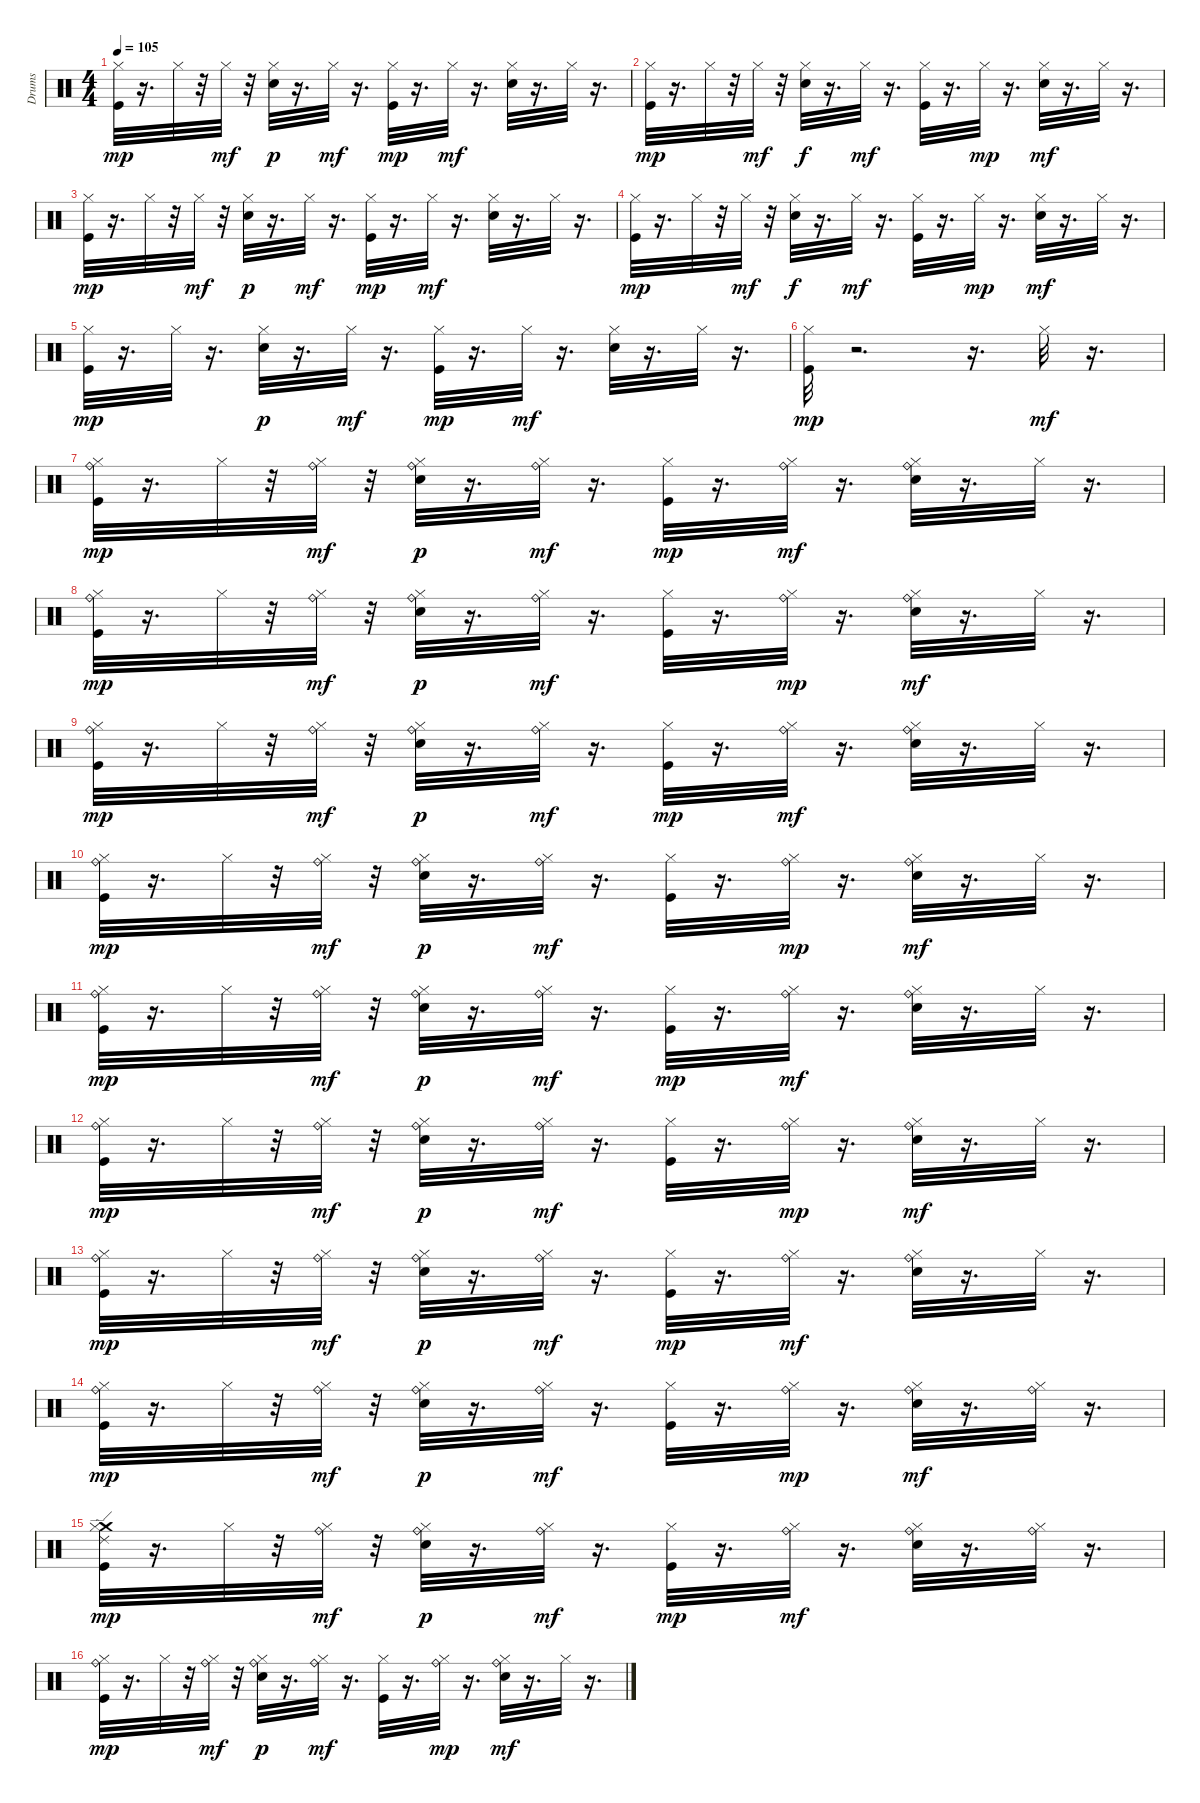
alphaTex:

\track ("Drums" "Drums") {instrument percussion}
\staff {score}
\articulation defaults
\ts (4 4)
\tempo 105
\clef neutral
\ks c
("Kick (hit)" "Hi-Hat (closed)").32{dy mp} r.16{d} "Hi-Hat (closed)".32 r.32 "Hi-Hat (closed)".32{dy mf} r.32 ("Snare (hit) 2" "Hi-Hat (closed)").32{dy p} r.16{d} "Hi-Hat (closed)".32{dy mf} r.16{d} ("Kick (hit)" "Hi-Hat (closed)").32{dy mp} r.16{d} "Hi-Hat (closed)".32{dy mf} r.16{d} ("Snare (hit) 2" "Hi-Hat (closed)").32 r.16{d} "Hi-Hat (closed)".32 r.16{d} |
("Kick (hit)" "Hi-Hat (closed)").32{dy mp} r.16{d} "Hi-Hat (closed)".32 r.32 "Hi-Hat (closed)".32{dy mf} r.32 ("Snare (hit) 2" "Hi-Hat (closed)").32{dy f} r.16{d} "Hi-Hat (closed)".32{dy mf} r.16{d} ("Kick (hit)" "Hi-Hat (closed)").32 r.16{d} "Hi-Hat (closed)".32{dy mp} r.16{d} ("Snare (hit) 2" "Hi-Hat (closed)").32{dy mf} r.16{d} "Hi-Hat (closed)".32 r.16{d} |
("Kick (hit)" "Hi-Hat (closed)").32{dy mp} r.16{d} "Hi-Hat (closed)".32 r.32 "Hi-Hat (closed)".32{dy mf} r.32 ("Snare (hit) 2" "Hi-Hat (closed)").32{dy p} r.16{d} "Hi-Hat (closed)".32{dy mf} r.16{d} ("Kick (hit)" "Hi-Hat (closed)").32{dy mp} r.16{d} "Hi-Hat (closed)".32{dy mf} r.16{d} ("Snare (hit) 2" "Hi-Hat (closed)").32 r.16{d} "Hi-Hat (closed)".32 r.16{d} |
("Kick (hit)" "Hi-Hat (closed)").32{dy mp} r.16{d} "Hi-Hat (closed)".32 r.32 "Hi-Hat (closed)".32{dy mf} r.32 ("Snare (hit) 2" "Hi-Hat (closed)").32{dy f} r.16{d} "Hi-Hat (closed)".32{dy mf} r.16{d} ("Kick (hit)" "Hi-Hat (closed)").32 r.16{d} "Hi-Hat (closed)".32{dy mp} r.16{d} ("Snare (hit) 2" "Hi-Hat (closed)").32{dy mf} r.16{d} "Hi-Hat (closed)".32 r.16{d} |
("Kick (hit)" "Hi-Hat (closed)").32{dy mp} r.16{d} "Hi-Hat (closed)".32 r.16{d} ("Snare (hit) 2" "Hi-Hat (closed)").32{dy p} r.16{d} "Hi-Hat (closed)".32{dy mf} r.16{d} ("Kick (hit)" "Hi-Hat (closed)").32{dy mp} r.16{d} "Hi-Hat (closed)".32{dy mf} r.16{d} ("Snare (hit) 2" "Hi-Hat (closed)").32 r.16{d} "Hi-Hat (closed)".32 r.16{d} |
("Kick (hit)" "Hi-Hat (closed)").32{dy mp} r.2{d} r.16{d} "Hi-Hat (closed)".32{dy mf} r.16{d} |
("Ride (bell)" "Kick (hit)" "Hi-Hat (closed)").32{dy mp} r.16{d} "Hi-Hat (closed)".32 r.32 ("Ride (bell)" "Hi-Hat (closed)").32{dy mf} r.32 ("Snare (hit) 2" "Ride (bell)" "Hi-Hat (closed)").32{dy p} r.16{d} ("Ride (bell)" "Hi-Hat (closed)").32{dy mf} r.16{d} ("Kick (hit)" "Hi-Hat (closed)").32{dy mp} r.16{d} ("Ride (bell)" "Hi-Hat (closed)").32{dy mf} r.16{d} ("Snare (hit) 2" "Ride (bell)" "Hi-Hat (closed)").32 r.16{d} "Hi-Hat (closed)".32 r.16{d} |
("Ride (bell)" "Kick (hit)" "Hi-Hat (closed)").32{dy mp} r.16{d} "Hi-Hat (closed)".32 r.32 ("Ride (bell)" "Hi-Hat (closed)").32{dy mf} r.32 ("Snare (hit) 2" "Ride (bell)" "Hi-Hat (closed)").32{dy p} r.16{d} ("Ride (bell)" "Hi-Hat (closed)").32{dy mf} r.16{d} ("Kick (hit)" "Hi-Hat (closed)").32 r.16{d} ("Ride (bell)" "Hi-Hat (closed)").32{dy mp} r.16{d} ("Snare (hit) 2" "Ride (bell)" "Hi-Hat (closed)").32{dy mf} r.16{d} "Hi-Hat (closed)".32 r.16{d} |
("Ride (bell)" "Kick (hit)" "Hi-Hat (closed)").32{dy mp} r.16{d} "Hi-Hat (closed)".32 r.32 ("Ride (bell)" "Hi-Hat (closed)").32{dy mf} r.32 ("Snare (hit) 2" "Ride (bell)" "Hi-Hat (closed)").32{dy p} r.16{d} ("Ride (bell)" "Hi-Hat (closed)").32{dy mf} r.16{d} ("Kick (hit)" "Hi-Hat (closed)").32{dy mp} r.16{d} ("Ride (bell)" "Hi-Hat (closed)").32{dy mf} r.16{d} ("Snare (hit) 2" "Ride (bell)" "Hi-Hat (closed)").32 r.16{d} "Hi-Hat (closed)".32 r.16{d} |
("Ride (bell)" "Kick (hit)" "Hi-Hat (closed)").32{dy mp} r.16{d} "Hi-Hat (closed)".32 r.32 ("Ride (bell)" "Hi-Hat (closed)").32{dy mf} r.32 ("Snare (hit) 2" "Ride (bell)" "Hi-Hat (closed)").32{dy p} r.16{d} ("Ride (bell)" "Hi-Hat (closed)").32{dy mf} r.16{d} ("Kick (hit)" "Hi-Hat (closed)").32 r.16{d} ("Ride (bell)" "Hi-Hat (closed)").32{dy mp} r.16{d} ("Snare (hit) 2" "Ride (bell)" "Hi-Hat (closed)").32{dy mf} r.16{d} "Hi-Hat (closed)".32 r.16{d} |
("Ride (bell)" "Kick (hit)" "Hi-Hat (closed)").32{dy mp} r.16{d} "Hi-Hat (closed)".32 r.32 ("Ride (bell)" "Hi-Hat (closed)").32{dy mf} r.32 ("Snare (hit) 2" "Ride (bell)" "Hi-Hat (closed)").32{dy p} r.16{d} ("Ride (bell)" "Hi-Hat (closed)").32{dy mf} r.16{d} ("Kick (hit)" "Hi-Hat (closed)").32{dy mp} r.16{d} ("Ride (bell)" "Hi-Hat (closed)").32{dy mf} r.16{d} ("Snare (hit) 2" "Ride (bell)" "Hi-Hat (closed)").32 r.16{d} "Hi-Hat (closed)".32 r.16{d} |
("Ride (bell)" "Kick (hit)" "Hi-Hat (closed)").32{dy mp} r.16{d} "Hi-Hat (closed)".32 r.32 ("Ride (bell)" "Hi-Hat (closed)").32{dy mf} r.32 ("Snare (hit) 2" "Ride (bell)" "Hi-Hat (closed)").32{dy p} r.16{d} ("Ride (bell)" "Hi-Hat (closed)").32{dy mf} r.16{d} ("Kick (hit)" "Hi-Hat (closed)").32 r.16{d} ("Ride (bell)" "Hi-Hat (closed)").32{dy mp} r.16{d} ("Snare (hit) 2" "Ride (bell)" "Hi-Hat (closed)").32{dy mf} r.16{d} "Hi-Hat (closed)".32 r.16{d} |
("Ride (bell)" "Kick (hit)" "Hi-Hat (closed)").32{dy mp} r.16{d} "Hi-Hat (closed)".32 r.32 ("Ride (bell)" "Hi-Hat (closed)").32{dy mf} r.32 ("Snare (hit) 2" "Ride (bell)" "Hi-Hat (closed)").32{dy p} r.16{d} ("Ride (bell)" "Hi-Hat (closed)").32{dy mf} r.16{d} ("Kick (hit)" "Hi-Hat (closed)").32{dy mp} r.16{d} ("Ride (bell)" "Hi-Hat (closed)").32{dy mf} r.16{d} ("Snare (hit) 2" "Ride (bell)" "Hi-Hat (closed)").32 r.16{d} "Hi-Hat (closed)".32 r.16{d} |
("Ride (bell)" "Kick (hit)" "Hi-Hat (closed)").32{dy mp} r.16{d} "Hi-Hat (closed)".32 r.32 ("Ride (bell)" "Hi-Hat (closed)").32{dy mf} r.32 ("Snare (hit) 2" "Ride (bell)" "Hi-Hat (closed)").32{dy p} r.16{d} ("Ride (bell)" "Hi-Hat (closed)").32{dy mf} r.16{d} ("Kick (hit)" "Hi-Hat (closed)").32 r.16{d} ("Ride (bell)" "Hi-Hat (closed)").32{dy mp} r.16{d} ("Snare (hit) 2" "Ride (bell)" "Hi-Hat (closed)").32{dy mf} r.16{d} ("Ride (bell)" "Hi-Hat (closed)").32 r.16{d} |
("Ride (edge) 2" "Crash medium (hit)" "Kick (hit)" "Hi-Hat (closed)").32{dy mp} r.16{d} "Hi-Hat (closed)".32 r.32 ("Ride (bell)" "Hi-Hat (closed)").32{dy mf} r.32 ("Snare (hit) 2" "Ride (bell)" "Hi-Hat (closed)").32{dy p} r.16{d} ("Ride (bell)" "Hi-Hat (closed)").32{dy mf} r.16{d} ("Kick (hit)" "Hi-Hat (closed)").32{dy mp} r.16{d} ("Ride (bell)" "Hi-Hat (closed)").32{dy mf} r.16{d} ("Snare (hit) 2" "Ride (bell)" "Hi-Hat (closed)").32 r.16{d} ("Ride (bell)" "Hi-Hat (closed)").32 r.16{d} |
("Ride (bell)" "Kick (hit)" "Hi-Hat (closed)").32{dy mp} r.16{d} "Hi-Hat (closed)".32 r.32 ("Ride (bell)" "Hi-Hat (closed)").32{dy mf} r.32 ("Snare (hit) 2" "Ride (bell)" "Hi-Hat (closed)").32{dy p} r.16{d} ("Ride (bell)" "Hi-Hat (closed)").32{dy mf} r.16{d} ("Kick (hit)" "Hi-Hat (closed)").32 r.16{d} ("Ride (bell)" "Hi-Hat (closed)").32{dy mp} r.16{d} ("Snare (hit) 2" "Ride (bell)" "Hi-Hat (closed)").32{dy mf} r.16{d} "Hi-Hat (closed)".32 r.16{d}
